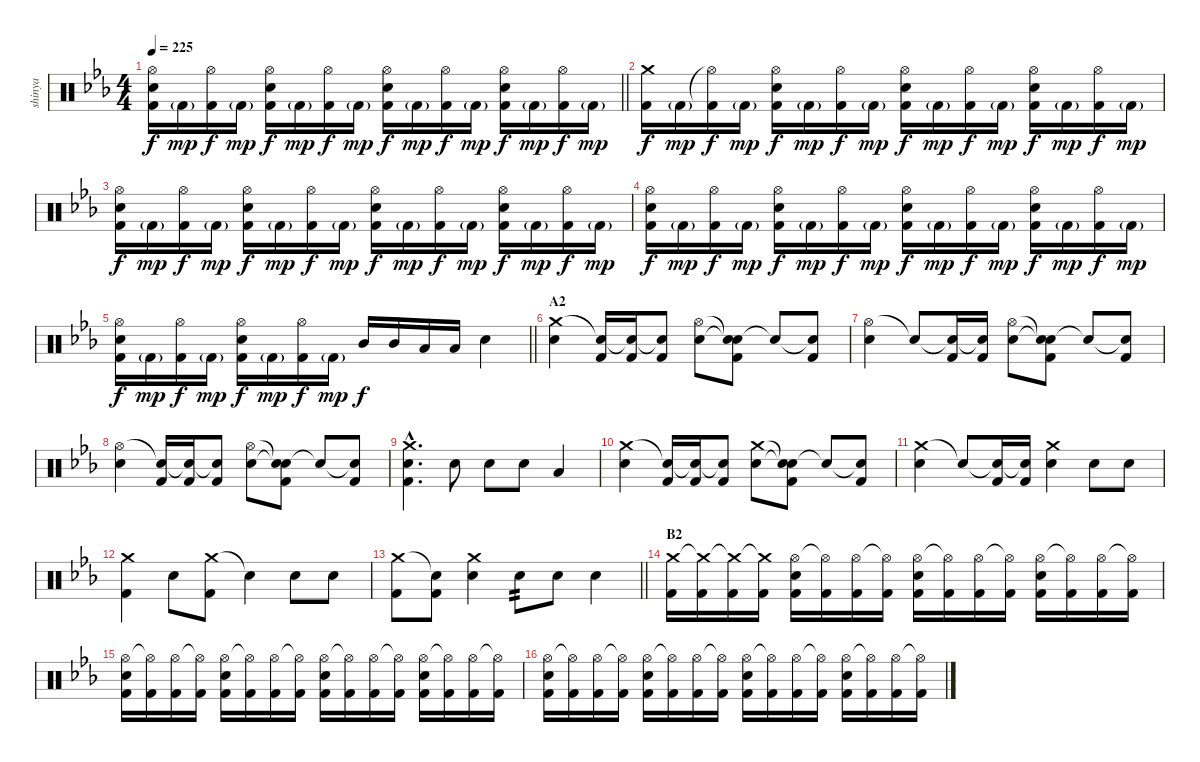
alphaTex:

\track ("shinya" "shinya") {instrument percussion}
\staff {score}
\articulation defaults
\ts (4 4)
\tempo 225
\clef neutral
\barLineRight lightlight
\ks eb
("Hi-Hat (open)" "Electric Snare (hit)" "Kick (hit) 2").16{dy f} "Kick (hit) 2"{g}.16{dy mp} ("Hi-Hat (open)" "Kick (hit) 2").16{dy f} "Kick (hit) 2"{g}.16{dy mp} ("Hi-Hat (open)" "Electric Snare (hit)" "Kick (hit) 2").16{dy f} "Kick (hit) 2"{g}.16{dy mp} ("Hi-Hat (open)" "Kick (hit) 2").16{dy f} "Kick (hit) 2"{g}.16{dy mp} ("Hi-Hat (open)" "Electric Snare (hit)" "Kick (hit) 2").16{dy f} "Kick (hit) 2"{g}.16{dy mp} ("Hi-Hat (open)" "Kick (hit) 2").16{dy f} "Kick (hit) 2"{g}.16{dy mp} ("Hi-Hat (open)" "Electric Snare (hit)" "Kick (hit) 2").16{dy f} "Kick (hit) 2"{g}.16{dy mp} ("Hi-Hat (open)" "Kick (hit) 2").16{dy f} "Kick (hit) 2"{g}.16{dy mp} |
("Crash medium (hit)" "Kick (hit) 2").16{dy f} "Kick (hit) 2"{g}.16{dy mp} ("Hi-Hat (open)"{t} "Kick (hit) 2").16{dy f} "Kick (hit) 2"{g}.16{dy mp} ("Hi-Hat (open)" "Electric Snare (hit)" "Kick (hit) 2").16{dy f} "Kick (hit) 2"{g}.16{dy mp} ("Hi-Hat (open)" "Kick (hit) 2").16{dy f} "Kick (hit) 2"{g}.16{dy mp} ("Hi-Hat (open)" "Electric Snare (hit)" "Kick (hit) 2").16{dy f} "Kick (hit) 2"{g}.16{dy mp} ("Hi-Hat (open)" "Kick (hit) 2").16{dy f} "Kick (hit) 2"{g}.16{dy mp} ("Hi-Hat (open)" "Electric Snare (hit)" "Kick (hit) 2").16{dy f} "Kick (hit) 2"{g}.16{dy mp} ("Hi-Hat (open)" "Kick (hit) 2").16{dy f} "Kick (hit) 2"{g}.16{dy mp} |
("Hi-Hat (open)" "Electric Snare (hit)" "Kick (hit) 2").16{dy f} "Kick (hit) 2"{g}.16{dy mp} ("Hi-Hat (open)" "Kick (hit) 2").16{dy f} "Kick (hit) 2"{g}.16{dy mp} ("Hi-Hat (open)" "Electric Snare (hit)" "Kick (hit) 2").16{dy f} "Kick (hit) 2"{g}.16{dy mp} ("Hi-Hat (open)" "Kick (hit) 2").16{dy f} "Kick (hit) 2"{g}.16{dy mp} ("Hi-Hat (open)" "Electric Snare (hit)" "Kick (hit) 2").16{dy f} "Kick (hit) 2"{g}.16{dy mp} ("Hi-Hat (open)" "Kick (hit) 2").16{dy f} "Kick (hit) 2"{g}.16{dy mp} ("Hi-Hat (open)" "Electric Snare (hit)" "Kick (hit) 2").16{dy f} "Kick (hit) 2"{g}.16{dy mp} ("Hi-Hat (open)" "Kick (hit) 2").16{dy f} "Kick (hit) 2"{g}.16{dy mp} |
("Hi-Hat (open)" "Electric Snare (hit)" "Kick (hit) 2").16{dy f} "Kick (hit) 2"{g}.16{dy mp} ("Hi-Hat (open)" "Kick (hit) 2").16{dy f} "Kick (hit) 2"{g}.16{dy mp} ("Hi-Hat (open)" "Electric Snare (hit)" "Kick (hit) 2").16{dy f} "Kick (hit) 2"{g}.16{dy mp} ("Hi-Hat (open)" "Kick (hit) 2").16{dy f} "Kick (hit) 2"{g}.16{dy mp} ("Hi-Hat (open)" "Electric Snare (hit)" "Kick (hit) 2").16{dy f} "Kick (hit) 2"{g}.16{dy mp} ("Hi-Hat (open)" "Kick (hit) 2").16{dy f} "Kick (hit) 2"{g}.16{dy mp} ("Hi-Hat (open)" "Electric Snare (hit)" "Kick (hit) 2").16{dy f} "Kick (hit) 2"{g}.16{dy mp} ("Hi-Hat (open)" "Kick (hit) 2").16{dy f} "Kick (hit) 2"{g}.16{dy mp} |
\barLineRight lightlight
("Hi-Hat (open)" "Electric Snare (hit)" "Kick (hit) 2").16{dy f} "Kick (hit) 2"{g}.16{dy mp} ("Hi-Hat (open)" "Kick (hit) 2").16{dy f} "Kick (hit) 2"{g}.16{dy mp} ("Hi-Hat (open)" "Electric Snare (hit)" "Kick (hit) 2").16{dy f} "Kick (hit) 2"{g}.16{dy mp} ("Hi-Hat (open)" "Kick (hit) 2").16{dy f} "Kick (hit) 2"{g}.16{dy mp} "Mid Tom (hit)".16{dy f} "Mid Tom (hit)".16 "Low Tom (hit)".16 "Low Floor Tom (hit)".16 "Electric Snare (hit)".4 |
\section ("" "A2")
("Crash medium (hit)" "Electric Snare (hit)").4 ("Snare (hit)"{t} "Kick (hit) 2").16 ("Snare (hit)"{t} "Kick (hit) 2").16 ("Snare (hit)"{t} "Kick (hit) 2").8 ("Hi-Hat (open)" "Electric Snare (hit)").8 ("Snare (hit)"{t} "Snare (hit)"{t} "Kick (hit) 2").8 "Snare (hit)"{t}.8 ("Snare (hit)"{t} "Kick (hit) 2").8 |
("Hi-Hat (open)" "Electric Snare (hit)").4 "Snare (hit)"{t}.8 ("Snare (hit)"{t} "Kick (hit) 2").16 ("Snare (hit)"{t} "Kick (hit) 2").16 ("Hi-Hat (open)" "Electric Snare (hit)").8 ("Snare (hit)"{t} "Snare (hit)"{t} "Kick (hit) 2").8 "Snare (hit)"{t}.8 ("Snare (hit)"{t} "Kick (hit) 2").8 |
("Hi-Hat (open)" "Electric Snare (hit)").4 ("Snare (hit)"{t} "Kick (hit) 2").16 ("Snare (hit)"{t} "Kick (hit) 2").16 ("Snare (hit)"{t} "Kick (hit) 2").8 ("Hi-Hat (open)" "Electric Snare (hit)").8 ("Snare (hit)"{t} "Snare (hit)"{t} "Kick (hit) 2").8 "Snare (hit)"{t}.8 ("Snare (hit)"{t} "Kick (hit) 2").8 |
("Crash medium (hit)"{hac} "Electric Snare (hit)"{hac} "Kick (hit) 2"{hac}).4{d} "Electric Snare (hit)".8 "Electric Snare (hit)".8 "Electric Snare (hit)".8 "Low Floor Tom (hit)".4 |
("Crash medium (hit)" "Electric Snare (hit)").4 ("Snare (hit)"{t} "Kick (hit) 2").16 ("Snare (hit)"{t} "Kick (hit) 2").16 ("Snare (hit)"{t} "Kick (hit) 2").8 ("Crash medium (hit)" "Electric Snare (hit)").8 ("Snare (hit)"{t} "Snare (hit)"{t} "Kick (hit) 2").8 "Snare (hit)"{t}.8 ("Snare (hit)"{t} "Kick (hit) 2").8 |
("Crash medium (hit)" "Electric Snare (hit)").4 "Snare (hit)"{t}.8 ("Snare (hit)"{t} "Kick (hit) 2").16 ("Snare (hit)"{t} "Kick (hit) 2").16 ("Crash medium (hit)" "Electric Snare (hit)").4 "Electric Snare (hit)".8 "Electric Snare (hit)".8 |
("Crash medium (hit)" "Kick (hit) 2").4 "Electric Snare (hit)".8 ("Crash medium (hit)" "Kick (hit) 2").8 "Snare (hit)"{t}.4 "Electric Snare (hit)".8 "Electric Snare (hit)".8 |
\barLineRight lightlight
("Crash medium (hit)" "Kick (hit) 2").8 ("Snare (hit)"{t} "Kick (hit) 2").8 ("Crash medium (hit)" "Electric Snare (hit)").4 "Electric Snare (hit)".8{tp 2} "Electric Snare (hit)".8 "Electric Snare (hit)".4 |
\section ("" "B2")
("Crash medium (hit)" "Kick (hit) 2").16 ("Crash medium (hit)"{t} "Kick (hit) 2").16 ("Crash medium (hit)"{t} "Kick (hit) 2").16 ("Crash medium (hit)"{t} "Kick (hit) 2").16 ("Hi-Hat (open)" "Electric Snare (hit)" "Kick (hit) 2").16 ("Hi-Hat (open)"{t} "Kick (hit) 2").16 ("Hi-Hat (open)" "Kick (hit) 2").16 ("Hi-Hat (open)"{t} "Kick (hit) 2").16 ("Hi-Hat (open)" "Electric Snare (hit)" "Kick (hit) 2").16 ("Hi-Hat (open)"{t} "Kick (hit) 2").16 ("Hi-Hat (open)" "Kick (hit) 2").16 ("Hi-Hat (open)"{t} "Kick (hit) 2").16 ("Hi-Hat (open)" "Electric Snare (hit)" "Kick (hit) 2").16 ("Hi-Hat (open)"{t} "Kick (hit) 2").16 ("Hi-Hat (open)" "Kick (hit) 2").16 ("Hi-Hat (open)"{t} "Kick (hit) 2").16 |
("Hi-Hat (open)" "Electric Snare (hit)" "Kick (hit) 2").16 ("Hi-Hat (open)"{t} "Kick (hit) 2").16 ("Hi-Hat (open)" "Kick (hit) 2").16 ("Hi-Hat (open)"{t} "Kick (hit) 2").16 ("Hi-Hat (open)" "Electric Snare (hit)" "Kick (hit) 2").16 ("Hi-Hat (open)"{t} "Kick (hit) 2").16 ("Hi-Hat (open)" "Kick (hit) 2").16 ("Hi-Hat (open)"{t} "Kick (hit) 2").16 ("Hi-Hat (open)" "Electric Snare (hit)" "Kick (hit) 2").16 ("Hi-Hat (open)"{t} "Kick (hit) 2").16 ("Hi-Hat (open)" "Kick (hit) 2").16 ("Hi-Hat (open)"{t} "Kick (hit) 2").16 ("Hi-Hat (open)" "Electric Snare (hit)" "Kick (hit) 2").16 ("Hi-Hat (open)"{t} "Kick (hit) 2").16 ("Hi-Hat (open)" "Kick (hit) 2").16 ("Hi-Hat (open)"{t} "Kick (hit) 2").16 |
("Hi-Hat (open)" "Electric Snare (hit)" "Kick (hit) 2").16 ("Hi-Hat (open)"{t} "Kick (hit) 2").16 ("Hi-Hat (open)" "Kick (hit) 2").16 ("Hi-Hat (open)"{t} "Kick (hit) 2").16 ("Hi-Hat (open)" "Electric Snare (hit)" "Kick (hit) 2").16 ("Hi-Hat (open)"{t} "Kick (hit) 2").16 ("Hi-Hat (open)" "Kick (hit) 2").16 ("Hi-Hat (open)"{t} "Kick (hit) 2").16 ("Hi-Hat (open)" "Electric Snare (hit)" "Kick (hit) 2").16 ("Hi-Hat (open)"{t} "Kick (hit) 2").16 ("Hi-Hat (open)" "Kick (hit) 2").16 ("Hi-Hat (open)"{t} "Kick (hit) 2").16 ("Hi-Hat (open)" "Electric Snare (hit)" "Kick (hit) 2").16 ("Hi-Hat (open)"{t} "Kick (hit) 2").16 ("Hi-Hat (open)" "Kick (hit) 2").16 ("Hi-Hat (open)"{t} "Kick (hit) 2").16
